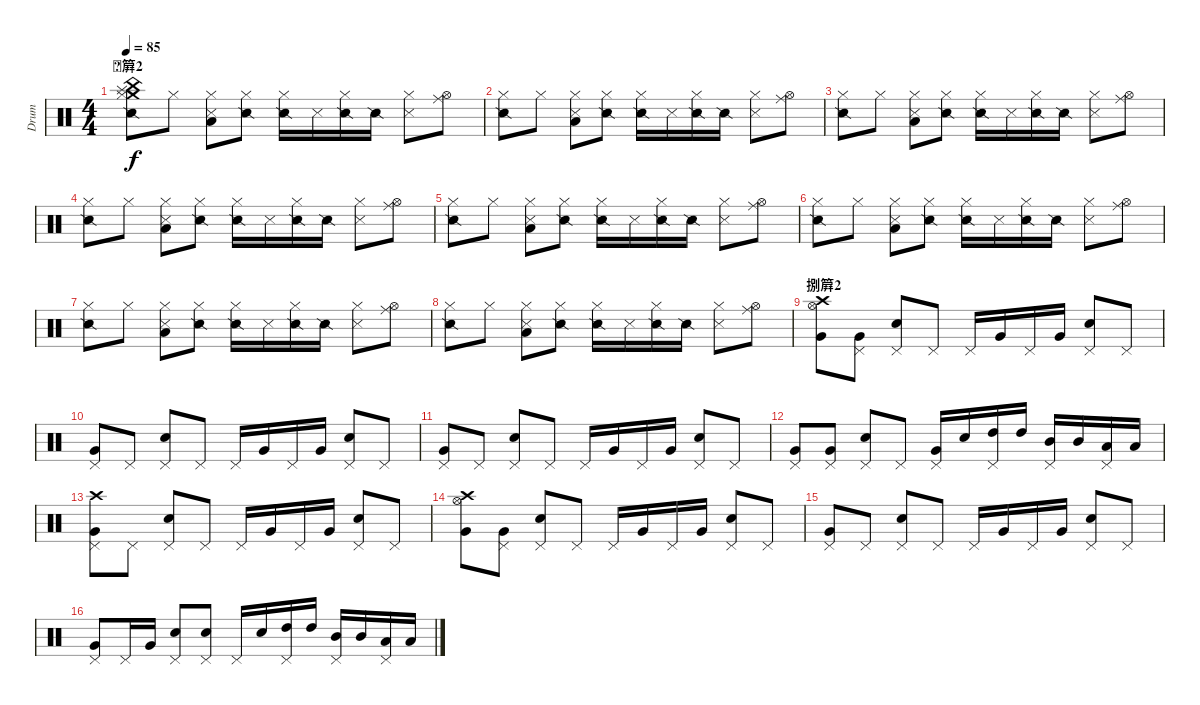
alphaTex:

\track ("Drum" "Drum") {instrument percussion}
\staff {score}
\articulation defaults
\ts (4 4)
\section ("" "簈2")
\tempo 85
\clef neutral
\ks c
("Crash medium (hit)" "Splash (hit)" "China (hit)" "Snare (side stick) 2" "Hi-Hat (closed)").8{dy f} "Hi-Hat (closed)".8 ("Metronome (hit)" "Low Floor Tom (hit)" "Hi-Hat (closed)").8 ("Snare (side stick) 2" "Hi-Hat (closed)").8 ("Snare (side stick) 2" "Hi-Hat (closed)").16 "Metronome (hit)".16 ("Snare (side stick) 2" "Hi-Hat (closed)").16 "Snare (side stick) 2".16 ("Metronome (hit)" "Hi-Hat (closed)").8 ("Ride (middle)" "Hi-Hat (open)").8 |
("Snare (side stick) 2" "Hi-Hat (closed)").8 "Hi-Hat (closed)".8 ("Metronome (hit)" "Low Floor Tom (hit)" "Hi-Hat (closed)").8 ("Snare (side stick) 2" "Hi-Hat (closed)").8 ("Snare (side stick) 2" "Hi-Hat (closed)").16 "Metronome (hit)".16 ("Snare (side stick) 2" "Hi-Hat (closed)").16 "Snare (side stick) 2".16 ("Metronome (hit)" "Hi-Hat (closed)").8 ("Ride (middle)" "Hi-Hat (open)").8 |
("Snare (side stick) 2" "Hi-Hat (closed)").8 "Hi-Hat (closed)".8 ("Metronome (hit)" "Low Floor Tom (hit)" "Hi-Hat (closed)").8 ("Snare (side stick) 2" "Hi-Hat (closed)").8 ("Snare (side stick) 2" "Hi-Hat (closed)").16 "Metronome (hit)".16 ("Snare (side stick) 2" "Hi-Hat (closed)").16 "Snare (side stick) 2".16 ("Metronome (hit)" "Hi-Hat (closed)").8 ("Ride (middle)" "Hi-Hat (open)").8 |
("Snare (side stick) 2" "Hi-Hat (closed)").8 "Hi-Hat (closed)".8 ("Metronome (hit)" "Low Floor Tom (hit)" "Hi-Hat (closed)").8 ("Snare (side stick) 2" "Hi-Hat (closed)").8 ("Snare (side stick) 2" "Hi-Hat (closed)").16 "Metronome (hit)".16 ("Snare (side stick) 2" "Hi-Hat (closed)").16 "Snare (side stick) 2".16 ("Metronome (hit)" "Hi-Hat (closed)").8 ("Ride (middle)" "Hi-Hat (open)").8 |
("Snare (side stick) 2" "Hi-Hat (closed)").8 "Hi-Hat (closed)".8 ("Metronome (hit)" "Low Floor Tom (hit)" "Hi-Hat (closed)").8 ("Snare (side stick) 2" "Hi-Hat (closed)").8 ("Snare (side stick) 2" "Hi-Hat (closed)").16 "Metronome (hit)".16 ("Snare (side stick) 2" "Hi-Hat (closed)").16 "Snare (side stick) 2".16 ("Metronome (hit)" "Hi-Hat (closed)").8 ("Ride (middle)" "Hi-Hat (open)").8 |
("Snare (side stick) 2" "Hi-Hat (closed)").8 "Hi-Hat (closed)".8 ("Metronome (hit)" "Low Floor Tom (hit)" "Hi-Hat (closed)").8 ("Snare (side stick) 2" "Hi-Hat (closed)").8 ("Snare (side stick) 2" "Hi-Hat (closed)").16 "Metronome (hit)".16 ("Snare (side stick) 2" "Hi-Hat (closed)").16 "Snare (side stick) 2".16 ("Metronome (hit)" "Hi-Hat (closed)").8 ("Ride (middle)" "Hi-Hat (open)").8 |
("Snare (side stick) 2" "Hi-Hat (closed)").8 "Hi-Hat (closed)".8 ("Metronome (hit)" "Low Floor Tom (hit)" "Hi-Hat (closed)").8 ("Snare (side stick) 2" "Hi-Hat (closed)").8 ("Snare (side stick) 2" "Hi-Hat (closed)").16 "Metronome (hit)".16 ("Snare (side stick) 2" "Hi-Hat (closed)").16 "Snare (side stick) 2".16 ("Metronome (hit)" "Hi-Hat (closed)").8 ("Ride (middle)" "Hi-Hat (open)").8 |
("Snare (side stick) 2" "Hi-Hat (closed)").8 "Hi-Hat (closed)".8 ("Metronome (hit)" "Low Floor Tom (hit)" "Hi-Hat (closed)").8 ("Snare (side stick) 2" "Hi-Hat (closed)").8 ("Snare (side stick) 2" "Hi-Hat (closed)").16 "Metronome (hit)".16 ("Snare (side stick) 2" "Hi-Hat (closed)").16 "Snare (side stick) 2".16 ("Metronome (hit)" "Hi-Hat (closed)").8 ("Ride (middle)" "Hi-Hat (open)").8 |
\section ("" "捌簈2")
("Crash high (hit)" "Very Low Tom (hit)" "Hi-Hat (open)").8 ("Very Low Tom (hit)" "Pedal Hi-Hat (hit)").8 ("Snare (hit) 2" "Pedal Hi-Hat (hit)").8 "Pedal Hi-Hat (hit)".8 "Pedal Hi-Hat (hit)".16 "Very Low Tom (hit)".16 "Pedal Hi-Hat (hit)".16 "Very Low Tom (hit)".16 ("Snare (hit) 2" "Pedal Hi-Hat (hit)").8 "Pedal Hi-Hat (hit)".8 |
("Very Low Tom (hit)" "Pedal Hi-Hat (hit)").8 "Pedal Hi-Hat (hit)".8 ("Snare (hit) 2" "Pedal Hi-Hat (hit)").8 "Pedal Hi-Hat (hit)".8 "Pedal Hi-Hat (hit)".16 "Very Low Tom (hit)".16 "Pedal Hi-Hat (hit)".16 "Very Low Tom (hit)".16 ("Snare (hit) 2" "Pedal Hi-Hat (hit)").8 "Pedal Hi-Hat (hit)".8 |
("Very Low Tom (hit)" "Pedal Hi-Hat (hit)").8 "Pedal Hi-Hat (hit)".8 ("Snare (hit) 2" "Pedal Hi-Hat (hit)").8 "Pedal Hi-Hat (hit)".8 "Pedal Hi-Hat (hit)".16 "Very Low Tom (hit)".16 "Pedal Hi-Hat (hit)".16 "Very Low Tom (hit)".16 ("Snare (hit) 2" "Pedal Hi-Hat (hit)").8 "Pedal Hi-Hat (hit)".8 |
("Very Low Tom (hit)" "Pedal Hi-Hat (hit)").8 ("Very Low Tom (hit)" "Pedal Hi-Hat (hit)").8 ("Snare (hit) 2" "Pedal Hi-Hat (hit)").8 "Pedal Hi-Hat (hit)".8 ("Very Low Tom (hit)" "Pedal Hi-Hat (hit)").16 "Snare (hit) 2".16 ("High Tom (hit)" "Pedal Hi-Hat (hit)").16 "High Tom (hit)".16 ("Mid Tom (hit)" "Pedal Hi-Hat (hit)").16 "Mid Tom (hit)".16 ("Low Tom (hit)" "Pedal Hi-Hat (hit)").16 "Low Tom (hit)".16 |
("Crash high (hit)" "Very Low Tom (hit)" "Pedal Hi-Hat (hit)").8 "Pedal Hi-Hat (hit)".8 ("Snare (hit) 2" "Pedal Hi-Hat (hit)").8 "Pedal Hi-Hat (hit)".8 "Pedal Hi-Hat (hit)".16 "Very Low Tom (hit)".16 "Pedal Hi-Hat (hit)".16 "Very Low Tom (hit)".16 ("Snare (hit) 2" "Pedal Hi-Hat (hit)").8 "Pedal Hi-Hat (hit)".8 |
("Crash high (hit)" "Very Low Tom (hit)" "Hi-Hat (open)").8 ("Very Low Tom (hit)" "Pedal Hi-Hat (hit)").8 ("Snare (hit) 2" "Pedal Hi-Hat (hit)").8 "Pedal Hi-Hat (hit)".8 "Pedal Hi-Hat (hit)".16 "Very Low Tom (hit)".16 "Pedal Hi-Hat (hit)".16 "Very Low Tom (hit)".16 ("Snare (hit) 2" "Pedal Hi-Hat (hit)").8 "Pedal Hi-Hat (hit)".8 |
("Very Low Tom (hit)" "Pedal Hi-Hat (hit)").8 "Pedal Hi-Hat (hit)".8 ("Snare (hit) 2" "Pedal Hi-Hat (hit)").8 "Pedal Hi-Hat (hit)".8 "Pedal Hi-Hat (hit)".16 "Very Low Tom (hit)".16 "Pedal Hi-Hat (hit)".16 "Very Low Tom (hit)".16 ("Snare (hit) 2" "Pedal Hi-Hat (hit)").8 "Pedal Hi-Hat (hit)".8 |
("Very Low Tom (hit)" "Pedal Hi-Hat (hit)").8 "Pedal Hi-Hat (hit)".16 "Very Low Tom (hit)".16 ("Snare (hit) 2" "Pedal Hi-Hat (hit)").8 ("Snare (hit) 2" "Pedal Hi-Hat (hit)").8 "Pedal Hi-Hat (hit)".16 "Snare (hit) 2".16 ("High Tom (hit)" "Pedal Hi-Hat (hit)").16 "High Tom (hit)".16 ("Mid Tom (hit)" "Pedal Hi-Hat (hit)").16 "Mid Tom (hit)".16 ("Low Tom (hit)" "Pedal Hi-Hat (hit)").16 "Low Tom (hit)".16
